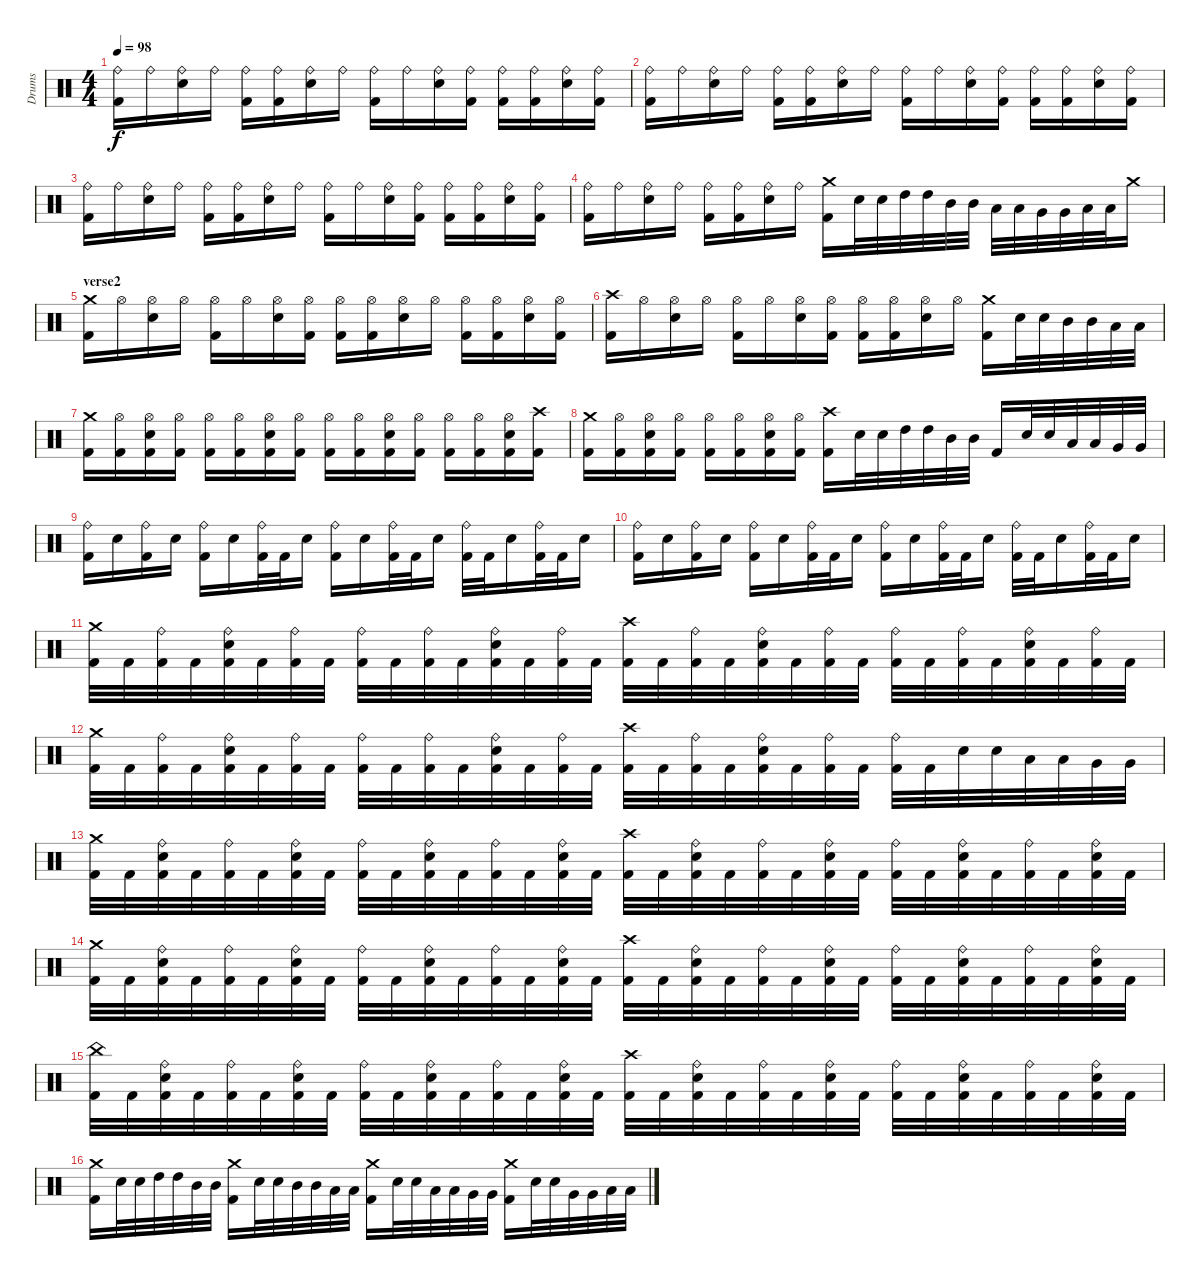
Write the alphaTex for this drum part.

\track ("Drums" "Drums") {instrument percussion}
\staff {score}
\articulation defaults
\ts (4 4)
\tempo 98
\clef neutral
\ks c
("Ride (bell)" "Kick (hit) 2").16{dy f} "Ride (bell)".16 ("Ride (bell)" "Electric Snare (hit)").16 "Ride (bell)".16 ("Ride (bell)" "Kick (hit) 2").16 ("Ride (bell)" "Kick (hit) 2").16 ("Ride (bell)" "Electric Snare (hit)").16 "Ride (bell)".16 ("Ride (bell)" "Kick (hit) 2").16 "Ride (bell)".16 ("Ride (bell)" "Electric Snare (hit)").16 ("Ride (bell)" "Kick (hit) 2").16 ("Ride (bell)" "Kick (hit) 2").16 ("Ride (bell)" "Kick (hit) 2").16 ("Ride (bell)" "Electric Snare (hit)").16 ("Ride (bell)" "Kick (hit) 2").16 |
("Ride (bell)" "Kick (hit) 2").16 "Ride (bell)".16 ("Ride (bell)" "Electric Snare (hit)").16 "Ride (bell)".16 ("Ride (bell)" "Kick (hit) 2").16 ("Ride (bell)" "Kick (hit) 2").16 ("Ride (bell)" "Electric Snare (hit)").16 "Ride (bell)".16 ("Ride (bell)" "Kick (hit) 2").16 "Ride (bell)".16 ("Ride (bell)" "Electric Snare (hit)").16 ("Ride (bell)" "Kick (hit) 2").16 ("Ride (bell)" "Kick (hit) 2").16 ("Ride (bell)" "Kick (hit) 2").16 ("Ride (bell)" "Electric Snare (hit)").16 ("Ride (bell)" "Kick (hit) 2").16 |
("Ride (bell)" "Kick (hit) 2").16 "Ride (bell)".16 ("Ride (bell)" "Electric Snare (hit)").16 "Ride (bell)".16 ("Ride (bell)" "Kick (hit) 2").16 ("Ride (bell)" "Kick (hit) 2").16 ("Ride (bell)" "Electric Snare (hit)").16 "Ride (bell)".16 ("Ride (bell)" "Kick (hit) 2").16 "Ride (bell)".16 ("Ride (bell)" "Electric Snare (hit)").16 ("Ride (bell)" "Kick (hit) 2").16 ("Ride (bell)" "Kick (hit) 2").16 ("Ride (bell)" "Kick (hit) 2").16 ("Ride (bell)" "Electric Snare (hit)").16 ("Ride (bell)" "Kick (hit) 2").16 |
("Ride (bell)" "Kick (hit) 2").16 "Ride (bell)".16 ("Ride (bell)" "Electric Snare (hit)").16 "Ride (bell)".16 ("Ride (bell)" "Kick (hit) 2").16 ("Ride (bell)" "Kick (hit) 2").16 ("Ride (bell)" "Electric Snare (hit)").16 "Ride (bell)".16 ("Crash medium (hit)" "Kick (hit) 2").16 "Electric Snare (hit)".32 "Electric Snare (hit)".32 "High Tom (hit)".32 "High Tom (hit)".32 "Mid Tom (hit)".32 "Mid Tom (hit)".32 "Low Tom (hit)".32 "Low Tom (hit)".32 "Very Low Tom (hit)".32 "Very Low Tom (hit)".32 "Low Floor Tom (hit)".32 "Low Floor Tom (hit)".32 "Crash medium (hit)".16 |
\section ("" "verse2")
("Crash medium (hit)" "Kick (hit) 2").16 "Hi-Hat (open)".16 ("Hi-Hat (open)" "Electric Snare (hit)").16 "Hi-Hat (open)".16 ("Hi-Hat (open)" "Kick (hit) 2").16 "Hi-Hat (open)".16 ("Hi-Hat (open)" "Electric Snare (hit)").16 ("Hi-Hat (open)" "Kick (hit) 2").16 ("Hi-Hat (open)" "Kick (hit) 2").16 ("Hi-Hat (open)" "Kick (hit) 2").16 ("Hi-Hat (open)" "Electric Snare (hit)").16 "Hi-Hat (open)".16 ("Hi-Hat (open)" "Kick (hit) 2").16 ("Hi-Hat (open)" "Kick (hit) 2").16 ("Hi-Hat (open)" "Electric Snare (hit)").16 ("Hi-Hat (open)" "Kick (hit) 2").16 |
("Crash high (hit)" "Kick (hit) 2").16 "Hi-Hat (open)".16 ("Hi-Hat (open)" "Electric Snare (hit)").16 "Hi-Hat (open)".16 ("Hi-Hat (open)" "Kick (hit) 2").16 "Hi-Hat (open)".16 ("Hi-Hat (open)" "Electric Snare (hit)").16 ("Hi-Hat (open)" "Kick (hit) 2").16 ("Hi-Hat (open)" "Kick (hit) 2").16 ("Hi-Hat (open)" "Kick (hit) 2").16 ("Hi-Hat (open)" "Electric Snare (hit)").16 "Hi-Hat (open)".16 ("Crash medium (hit)" "Kick (hit) 2").16 "Electric Snare (hit)".32 "Electric Snare (hit)".32 "Mid Tom (hit)".32 "Mid Tom (hit)".32 "Low Tom (hit)".32 "Low Tom (hit)".32 |
("Crash medium (hit)" "Kick (hit) 2").16 ("Hi-Hat (open)" "Kick (hit) 2").16 ("Hi-Hat (open)" "Electric Snare (hit)" "Kick (hit) 2").16 ("Hi-Hat (open)" "Kick (hit) 2").16 ("Hi-Hat (open)" "Kick (hit) 2").16 ("Hi-Hat (open)" "Kick (hit) 2").16 ("Hi-Hat (open)" "Electric Snare (hit)" "Kick (hit) 2").16 ("Hi-Hat (open)" "Kick (hit) 2").16 ("Hi-Hat (open)" "Kick (hit) 2").16 ("Hi-Hat (open)" "Kick (hit) 2").16 ("Hi-Hat (open)" "Electric Snare (hit)" "Kick (hit) 2").16 ("Hi-Hat (open)" "Kick (hit) 2").16 ("Hi-Hat (open)" "Kick (hit) 2").16 ("Hi-Hat (open)" "Kick (hit) 2").16 ("Hi-Hat (open)" "Electric Snare (hit)" "Kick (hit) 2").16 ("Crash high (hit)" "Kick (hit) 2").16 |
("Crash medium (hit)" "Kick (hit) 2").16 ("Hi-Hat (open)" "Kick (hit) 2").16 ("Hi-Hat (open)" "Electric Snare (hit)" "Kick (hit) 2").16 ("Hi-Hat (open)" "Kick (hit) 2").16 ("Hi-Hat (open)" "Kick (hit) 2").16 ("Hi-Hat (open)" "Kick (hit) 2").16 ("Hi-Hat (open)" "Electric Snare (hit)" "Kick (hit) 2").16 ("Hi-Hat (open)" "Kick (hit) 2").16 ("Crash high (hit)" "Kick (hit) 2").16 "Electric Snare (hit)".32 "Electric Snare (hit)".32 "High Tom (hit)".32 "High Tom (hit)".32 "Mid Tom (hit)".32 "Mid Tom (hit)".32 "Kick (hit) 2".16 "Electric Snare (hit)".32 "Electric Snare (hit)".32 "Low Tom (hit)".32 "Low Tom (hit)".32 "Very Low Tom (hit)".32 "Very Low Tom (hit)".32 |
("Ride (bell)" "Kick (hit) 2").16 "Electric Snare (hit)".16 ("Ride (bell)" "Kick (hit) 2").16 "Electric Snare (hit)".16 ("Ride (bell)" "Kick (hit) 2").16 "Electric Snare (hit)".16 ("Ride (bell)" "Kick (hit) 2").32 "Kick (hit) 2".32 "Electric Snare (hit)".16 ("Ride (bell)" "Kick (hit) 2").16 "Electric Snare (hit)".16 ("Ride (bell)" "Kick (hit) 2").32 "Kick (hit) 2".32 "Electric Snare (hit)".16 ("Ride (bell)" "Kick (hit) 2").32 "Kick (hit) 2".32 "Electric Snare (hit)".16 ("Ride (bell)" "Kick (hit) 2").32 "Kick (hit) 2".32 "Electric Snare (hit)".16 |
("Ride (bell)" "Kick (hit) 2").16 "Electric Snare (hit)".16 ("Ride (bell)" "Kick (hit) 2").16 "Electric Snare (hit)".16 ("Ride (bell)" "Kick (hit) 2").16 "Electric Snare (hit)".16 ("Ride (bell)" "Kick (hit) 2").32 "Kick (hit) 2".32 "Electric Snare (hit)".16 ("Ride (bell)" "Kick (hit) 2").16 "Electric Snare (hit)".16 ("Ride (bell)" "Kick (hit) 2").32 "Kick (hit) 2".32 "Electric Snare (hit)".16 ("Ride (bell)" "Kick (hit) 2").32 "Kick (hit) 2".32 "Electric Snare (hit)".16 ("Ride (bell)" "Kick (hit) 2").32 "Kick (hit) 2".32 "Electric Snare (hit)".16 |
("Crash medium (hit)" "Kick (hit) 2").32 "Kick (hit) 2".32 ("Ride (bell)" "Kick (hit) 2").32 "Kick (hit) 2".32 ("Ride (bell)" "Electric Snare (hit)" "Kick (hit) 2").32 "Kick (hit) 2".32 ("Ride (bell)" "Kick (hit) 2").32 "Kick (hit) 2".32 ("Ride (bell)" "Kick (hit) 2").32 "Kick (hit) 2".32 ("Ride (bell)" "Kick (hit) 2").32 "Kick (hit) 2".32 ("Ride (bell)" "Electric Snare (hit)" "Kick (hit) 2").32 "Kick (hit) 2".32 ("Ride (bell)" "Kick (hit) 2").32 "Kick (hit) 2".32 ("Crash high (hit)" "Kick (hit) 2").32 "Kick (hit) 2".32 ("Ride (bell)" "Kick (hit) 2").32 "Kick (hit) 2".32 ("Ride (bell)" "Electric Snare (hit)" "Kick (hit) 2").32 "Kick (hit) 2".32 ("Ride (bell)" "Kick (hit) 2").32 "Kick (hit) 2".32 ("Ride (bell)" "Kick (hit) 2").32 "Kick (hit) 2".32 ("Ride (bell)" "Kick (hit) 2").32 "Kick (hit) 2".32 ("Ride (bell)" "Electric Snare (hit)" "Kick (hit) 2").32 "Kick (hit) 2".32 ("Ride (bell)" "Kick (hit) 2").32 "Kick (hit) 2".32 |
("Crash medium (hit)" "Kick (hit) 2").32 "Kick (hit) 2".32 ("Ride (bell)" "Kick (hit) 2").32 "Kick (hit) 2".32 ("Ride (bell)" "Electric Snare (hit)" "Kick (hit) 2").32 "Kick (hit) 2".32 ("Ride (bell)" "Kick (hit) 2").32 "Kick (hit) 2".32 ("Ride (bell)" "Kick (hit) 2").32 "Kick (hit) 2".32 ("Ride (bell)" "Kick (hit) 2").32 "Kick (hit) 2".32 ("Ride (bell)" "Electric Snare (hit)" "Kick (hit) 2").32 "Kick (hit) 2".32 ("Ride (bell)" "Kick (hit) 2").32 "Kick (hit) 2".32 ("Crash high (hit)" "Kick (hit) 2").32 "Kick (hit) 2".32 ("Ride (bell)" "Kick (hit) 2").32 "Kick (hit) 2".32 ("Ride (bell)" "Electric Snare (hit)" "Kick (hit) 2").32 "Kick (hit) 2".32 ("Ride (bell)" "Kick (hit) 2").32 "Kick (hit) 2".32 ("Ride (bell)" "Kick (hit) 2").32 "Kick (hit) 2".32 "Electric Snare (hit)".32 "Electric Snare (hit)".32 "Low Tom (hit)".32 "Low Tom (hit)".32 "Very Low Tom (hit)".32 "Very Low Tom (hit)".32 |
("Crash medium (hit)" "Kick (hit) 2").32 "Kick (hit) 2".32 ("Ride (bell)" "Electric Snare (hit)" "Kick (hit) 2").32 "Kick (hit) 2".32 ("Ride (bell)" "Kick (hit) 2").32 "Kick (hit) 2".32 ("Ride (bell)" "Electric Snare (hit)" "Kick (hit) 2").32 "Kick (hit) 2".32 ("Ride (bell)" "Kick (hit) 2").32 "Kick (hit) 2".32 ("Ride (bell)" "Electric Snare (hit)" "Kick (hit) 2").32 "Kick (hit) 2".32 ("Ride (bell)" "Kick (hit) 2").32 "Kick (hit) 2".32 ("Ride (bell)" "Electric Snare (hit)" "Kick (hit) 2").32 "Kick (hit) 2".32 ("Crash high (hit)" "Kick (hit) 2").32 "Kick (hit) 2".32 ("Ride (bell)" "Electric Snare (hit)" "Kick (hit) 2").32 "Kick (hit) 2".32 ("Ride (bell)" "Kick (hit) 2").32 "Kick (hit) 2".32 ("Ride (bell)" "Electric Snare (hit)" "Kick (hit) 2").32 "Kick (hit) 2".32 ("Ride (bell)" "Kick (hit) 2").32 "Kick (hit) 2".32 ("Ride (bell)" "Electric Snare (hit)" "Kick (hit) 2").32 "Kick (hit) 2".32 ("Ride (bell)" "Kick (hit) 2").32 "Kick (hit) 2".32 ("Ride (bell)" "Electric Snare (hit)" "Kick (hit) 2").32 "Kick (hit) 2".32 |
("Crash medium (hit)" "Kick (hit) 2").32 "Kick (hit) 2".32 ("Ride (bell)" "Electric Snare (hit)" "Kick (hit) 2").32 "Kick (hit) 2".32 ("Ride (bell)" "Kick (hit) 2").32 "Kick (hit) 2".32 ("Ride (bell)" "Electric Snare (hit)" "Kick (hit) 2").32 "Kick (hit) 2".32 ("Ride (bell)" "Kick (hit) 2").32 "Kick (hit) 2".32 ("Ride (bell)" "Electric Snare (hit)" "Kick (hit) 2").32 "Kick (hit) 2".32 ("Ride (bell)" "Kick (hit) 2").32 "Kick (hit) 2".32 ("Ride (bell)" "Electric Snare (hit)" "Kick (hit) 2").32 "Kick (hit) 2".32 ("Crash high (hit)" "Kick (hit) 2").32 "Kick (hit) 2".32 ("Ride (bell)" "Electric Snare (hit)" "Kick (hit) 2").32 "Kick (hit) 2".32 ("Ride (bell)" "Kick (hit) 2").32 "Kick (hit) 2".32 ("Ride (bell)" "Electric Snare (hit)" "Kick (hit) 2").32 "Kick (hit) 2".32 ("Ride (bell)" "Kick (hit) 2").32 "Kick (hit) 2".32 ("Ride (bell)" "Electric Snare (hit)" "Kick (hit) 2").32 "Kick (hit) 2".32 ("Ride (bell)" "Kick (hit) 2").32 "Kick (hit) 2".32 ("Ride (bell)" "Electric Snare (hit)" "Kick (hit) 2").32 "Kick (hit) 2".32 |
("China (hit)" "Kick (hit) 2").32 "Kick (hit) 2".32 ("Ride (bell)" "Electric Snare (hit)" "Kick (hit) 2").32 "Kick (hit) 2".32 ("Ride (bell)" "Kick (hit) 2").32 "Kick (hit) 2".32 ("Ride (bell)" "Electric Snare (hit)" "Kick (hit) 2").32 "Kick (hit) 2".32 ("Ride (bell)" "Kick (hit) 2").32 "Kick (hit) 2".32 ("Ride (bell)" "Electric Snare (hit)" "Kick (hit) 2").32 "Kick (hit) 2".32 ("Ride (bell)" "Kick (hit) 2").32 "Kick (hit) 2".32 ("Ride (bell)" "Electric Snare (hit)" "Kick (hit) 2").32 "Kick (hit) 2".32 ("Crash high (hit)" "Kick (hit) 2").32 "Kick (hit) 2".32 ("Ride (bell)" "Electric Snare (hit)" "Kick (hit) 2").32 "Kick (hit) 2".32 ("Ride (bell)" "Kick (hit) 2").32 "Kick (hit) 2".32 ("Ride (bell)" "Electric Snare (hit)" "Kick (hit) 2").32 "Kick (hit) 2".32 ("Ride (bell)" "Kick (hit) 2").32 "Kick (hit) 2".32 ("Ride (bell)" "Electric Snare (hit)" "Kick (hit) 2").32 "Kick (hit) 2".32 ("Ride (bell)" "Kick (hit) 2").32 "Kick (hit) 2".32 ("Ride (bell)" "Electric Snare (hit)" "Kick (hit) 2").32 "Kick (hit) 2".32 |
("Crash medium (hit)" "Kick (hit) 2").16 "Electric Snare (hit)".32 "Electric Snare (hit)".32 "High Tom (hit)".32 "High Tom (hit)".32 "Mid Tom (hit)".32 "Mid Tom (hit)".32 ("Crash medium (hit)" "Kick (hit) 2").16 "Electric Snare (hit)".32 "Electric Snare (hit)".32 "Mid Tom (hit)".32 "Mid Tom (hit)".32 "Low Tom (hit)".32 "Low Tom (hit)".32 ("Crash medium (hit)" "Kick (hit) 2").16 "Electric Snare (hit)".32 "Electric Snare (hit)".32 "Low Tom (hit)".32 "Low Tom (hit)".32 "Very Low Tom (hit)".32 "Very Low Tom (hit)".32 ("Crash medium (hit)" "Kick (hit) 2").16 "Electric Snare (hit)".32 "Electric Snare (hit)".32 "Very Low Tom (hit)".32 "Very Low Tom (hit)".32 "Low Floor Tom (hit)".32 "Low Floor Tom (hit)".32
